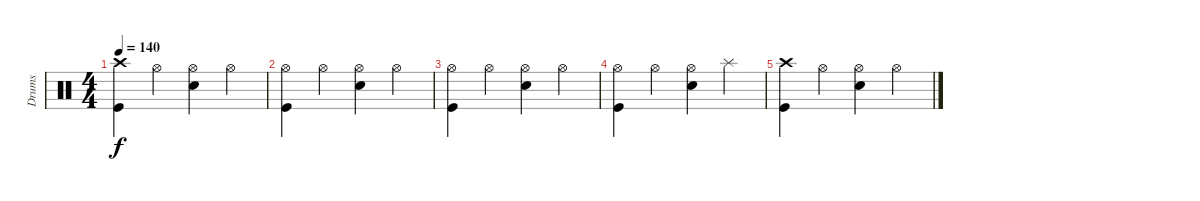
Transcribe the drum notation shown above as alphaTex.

\track ("Drums" "Drums") {instrument percussion}
\staff {score}
\articulation defaults
\ts (4 4)
\tempo 140
\clef neutral
\ks c
("Crash high (hit)" "Kick (hit)").4{dy f volume 7} "Hi-Hat (open)".4 ("Hi-Hat (open)" "Electric Snare (hit)").4 "Hi-Hat (open)".4 |
("Hi-Hat (open)" "Kick (hit)").4 "Hi-Hat (open)".4 ("Hi-Hat (open)" "Electric Snare (hit)").4 "Hi-Hat (open)".4 |
("Hi-Hat (open)" "Kick (hit)").4 "Hi-Hat (open)".4 ("Hi-Hat (open)" "Electric Snare (hit)").4 "Hi-Hat (open)".4 |
("Hi-Hat (open)" "Kick (hit)").4 "Hi-Hat (open)".4 ("Hi-Hat (open)" "Electric Snare (hit)").4 "Splash (hit)".4 |
("Crash high (hit)" "Kick (hit)").4 "Hi-Hat (open)".4 ("Hi-Hat (open)" "Electric Snare (hit)").4 "Hi-Hat (open)".4
